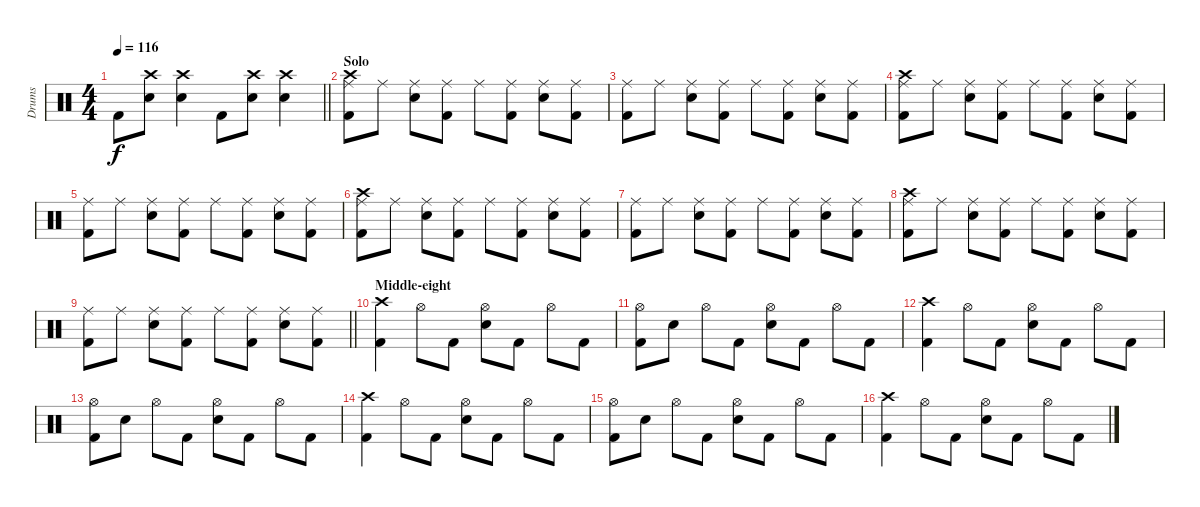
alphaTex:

\track ("Drums" "Drums") {instrument percussion}
\staff {score}
\articulation defaults
\ts (4 4)
\tempo 116
\clef neutral
\barLineRight lightlight
\ks c "Kick (hit) 2".8{dy f}
("Crash high (hit)" "Snare (hit) 2").8 ("Crash high (hit)" "Snare (hit) 2").4 "Kick (hit) 2".8 ("Crash high (hit)" "Snare (hit) 2").8 ("Crash high (hit)" "Snare (hit) 2").4 |
\section ("" "Solo")
("Crash high (hit)" "Ride (middle)" "Kick (hit) 2").8 "Ride (middle)".8 ("Ride (middle)" "Snare (hit) 2").8 ("Ride (middle)" "Kick (hit) 2").8 "Ride (middle)".8 ("Ride (middle)" "Kick (hit) 2").8 ("Ride (middle)" "Snare (hit) 2").8 ("Ride (middle)" "Kick (hit) 2").8 |
("Ride (middle)" "Kick (hit) 2").8 "Ride (middle)".8 ("Ride (middle)" "Snare (hit) 2").8 ("Ride (middle)" "Kick (hit) 2").8 "Ride (middle)".8 ("Ride (middle)" "Kick (hit) 2").8 ("Ride (middle)" "Snare (hit) 2").8 ("Ride (middle)" "Kick (hit) 2").8 |
("Crash high (hit)" "Ride (middle)" "Kick (hit) 2").8 "Ride (middle)".8 ("Ride (middle)" "Snare (hit) 2").8 ("Ride (middle)" "Kick (hit) 2").8 "Ride (middle)".8 ("Ride (middle)" "Kick (hit) 2").8 ("Ride (middle)" "Snare (hit) 2").8 ("Ride (middle)" "Kick (hit) 2").8 |
("Ride (middle)" "Kick (hit) 2").8 "Ride (middle)".8 ("Ride (middle)" "Snare (hit) 2").8 ("Ride (middle)" "Kick (hit) 2").8 "Ride (middle)".8 ("Ride (middle)" "Kick (hit) 2").8 ("Ride (middle)" "Snare (hit) 2").8 ("Ride (middle)" "Kick (hit) 2").8 |
("Crash high (hit)" "Ride (middle)" "Kick (hit) 2").8 "Ride (middle)".8 ("Ride (middle)" "Snare (hit) 2").8 ("Ride (middle)" "Kick (hit) 2").8 "Ride (middle)".8 ("Ride (middle)" "Kick (hit) 2").8 ("Ride (middle)" "Snare (hit) 2").8 ("Ride (middle)" "Kick (hit) 2").8 |
("Ride (middle)" "Kick (hit) 2").8 "Ride (middle)".8 ("Ride (middle)" "Snare (hit) 2").8 ("Ride (middle)" "Kick (hit) 2").8 "Ride (middle)".8 ("Ride (middle)" "Kick (hit) 2").8 ("Ride (middle)" "Snare (hit) 2").8 ("Ride (middle)" "Kick (hit) 2").8 |
("Crash high (hit)" "Ride (middle)" "Kick (hit) 2").8 "Ride (middle)".8 ("Ride (middle)" "Snare (hit) 2").8 ("Ride (middle)" "Kick (hit) 2").8 "Ride (middle)".8 ("Ride (middle)" "Kick (hit) 2").8 ("Ride (middle)" "Snare (hit) 2").8 ("Ride (middle)" "Kick (hit) 2").8 |
\barLineRight lightlight
("Ride (middle)" "Kick (hit) 2").8 "Ride (middle)".8 ("Ride (middle)" "Snare (hit) 2").8 ("Ride (middle)" "Kick (hit) 2").8 "Ride (middle)".8 ("Ride (middle)" "Kick (hit) 2").8 ("Ride (middle)" "Snare (hit) 2").8 ("Ride (middle)" "Kick (hit) 2").8 |
\section ("" "Middle-eight")
("Crash high (hit)" "Kick (hit) 2").4 "Hi-Hat (open)".8 "Kick (hit) 2".8 ("Hi-Hat (open)" "Snare (hit) 2").8 "Kick (hit) 2".8 "Hi-Hat (open)".8 "Kick (hit) 2".8 |
("Hi-Hat (open)" "Kick (hit) 2").8 "Snare (hit) 2".8 "Hi-Hat (open)".8 "Kick (hit) 2".8 ("Hi-Hat (open)" "Snare (hit) 2").8 "Kick (hit) 2".8 "Hi-Hat (open)".8 "Kick (hit) 2".8 |
("Crash high (hit)" "Kick (hit) 2").4 "Hi-Hat (open)".8 "Kick (hit) 2".8 ("Hi-Hat (open)" "Snare (hit) 2").8 "Kick (hit) 2".8 "Hi-Hat (open)".8 "Kick (hit) 2".8 |
("Hi-Hat (open)" "Kick (hit) 2").8 "Snare (hit) 2".8 "Hi-Hat (open)".8 "Kick (hit) 2".8 ("Hi-Hat (open)" "Snare (hit) 2").8 "Kick (hit) 2".8 "Hi-Hat (open)".8 "Kick (hit) 2".8 |
("Crash high (hit)" "Kick (hit) 2").4 "Hi-Hat (open)".8 "Kick (hit) 2".8 ("Hi-Hat (open)" "Snare (hit) 2").8 "Kick (hit) 2".8 "Hi-Hat (open)".8 "Kick (hit) 2".8 |
("Hi-Hat (open)" "Kick (hit) 2").8 "Snare (hit) 2".8 "Hi-Hat (open)".8 "Kick (hit) 2".8 ("Hi-Hat (open)" "Snare (hit) 2").8 "Kick (hit) 2".8 "Hi-Hat (open)".8 "Kick (hit) 2".8 |
("Crash high (hit)" "Kick (hit) 2").4 "Hi-Hat (open)".8 "Kick (hit) 2".8 ("Hi-Hat (open)" "Snare (hit) 2").8 "Kick (hit) 2".8 "Hi-Hat (open)".8 "Kick (hit) 2".8
